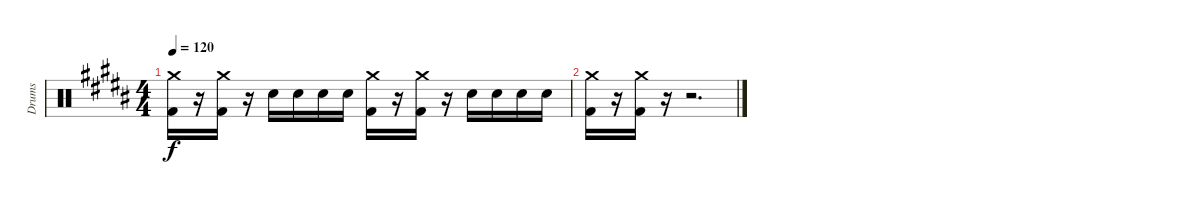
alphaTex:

\track ("Drums" "Drums") {instrument percussion}
\staff {score}
\articulation defaults
\ts (4 4)
\tempo 120
\clef neutral
\ks b
("Crash medium (hit)" "Kick (hit) 2").16{dy f} r.16 ("Crash medium (hit)" "Kick (hit) 2").16 r.16 "Snare (hit) 2".16 "Snare (hit) 2".16 "Snare (hit) 2".16 "Snare (hit) 2".16 ("Crash medium (hit)" "Kick (hit) 2").16 r.16 ("Crash medium (hit)" "Kick (hit) 2").16 r.16 "Snare (hit) 2".16 "Snare (hit) 2".16 "Snare (hit) 2".16 "Snare (hit) 2".16 |
("Crash medium (hit)" "Kick (hit) 2").16 r.16 ("Crash medium (hit)" "Kick (hit) 2").16 r.16 r.2{d}
